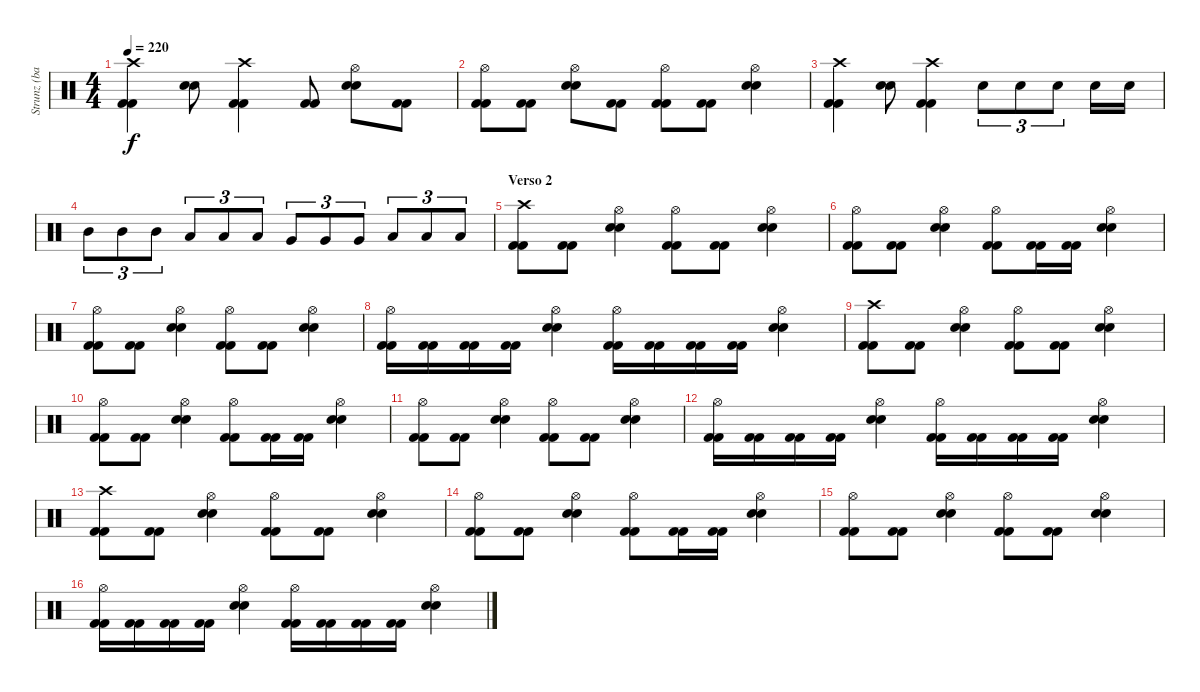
\track ("Strunz (bateria)" "Strunz (ba") {instrument percussion}
\staff {score}
\articulation defaults
\ts (4 4)
\tempo 220
\clef neutral
\ks c
("Crash high (hit)" "Kick (hit) 2" "Kick (hit) 2").4{dy f} ("Snare (hit) 2" "Snare (hit) 2").8 ("Crash high (hit)" "Kick (hit) 2" "Kick (hit) 2").4 ("Kick (hit) 2" "Kick (hit) 2").8 ("Hi-Hat (open)" "Snare (hit) 2" "Snare (hit) 2").8 ("Kick (hit) 2" "Kick (hit) 2").8 |
("Hi-Hat (open)" "Kick (hit) 2" "Kick (hit) 2").8 ("Kick (hit) 2" "Kick (hit) 2").8 ("Hi-Hat (open)" "Snare (hit) 2" "Snare (hit) 2").8 ("Kick (hit) 2" "Kick (hit) 2").8 ("Hi-Hat (open)" "Kick (hit) 2" "Kick (hit) 2").8 ("Kick (hit) 2" "Kick (hit) 2").8 ("Hi-Hat (open)" "Snare (hit) 2" "Snare (hit) 2").4 |
("Crash high (hit)" "Kick (hit) 2" "Kick (hit) 2").4 ("Snare (hit) 2" "Snare (hit) 2").8 ("Crash high (hit)" "Kick (hit) 2" "Kick (hit) 2").4 "Snare (hit) 2".8{tu (3 2)} "Snare (hit) 2".8{tu (3 2)} "Snare (hit) 2".8{tu (3 2)} "Snare (hit) 2".16 "Snare (hit) 2".16 |
"Mid Tom (hit)".8{tu (3 2)} "Mid Tom (hit)".8{tu (3 2)} "Mid Tom (hit)".8{tu (3 2)} "Low Tom (hit)".8{tu (3 2)} "Low Tom (hit)".8{tu (3 2)} "Low Tom (hit)".8{tu (3 2)} "Very Low Tom (hit)".8{tu (3 2)} "Very Low Tom (hit)".8{tu (3 2)} "Very Low Tom (hit)".8{tu (3 2)} "Low Floor Tom (hit)".8{tu (3 2)} "Low Floor Tom (hit)".8{tu (3 2)} "Low Floor Tom (hit)".8{tu (3 2)} |
\section ("" "Verso 2")
("Crash high (hit)" "Kick (hit) 2" "Kick (hit) 2").8 ("Kick (hit) 2" "Kick (hit) 2").8 ("Hi-Hat (open)" "Snare (hit) 2" "Snare (hit) 2").4 ("Hi-Hat (open)" "Kick (hit) 2" "Kick (hit) 2").8 ("Kick (hit) 2" "Kick (hit) 2").8 ("Hi-Hat (open)" "Snare (hit) 2" "Snare (hit) 2").4 |
("Hi-Hat (open)" "Kick (hit) 2" "Kick (hit) 2").8 ("Kick (hit) 2" "Kick (hit) 2").8 ("Hi-Hat (open)" "Snare (hit) 2" "Snare (hit) 2").4 ("Hi-Hat (open)" "Kick (hit) 2" "Kick (hit) 2").8 ("Kick (hit) 2" "Kick (hit) 2").16 ("Kick (hit) 2" "Kick (hit) 2").16 ("Hi-Hat (open)" "Snare (hit) 2" "Snare (hit) 2").4 |
("Hi-Hat (open)" "Kick (hit) 2" "Kick (hit) 2").8 ("Kick (hit) 2" "Kick (hit) 2").8 ("Hi-Hat (open)" "Snare (hit) 2" "Snare (hit) 2").4 ("Hi-Hat (open)" "Kick (hit) 2" "Kick (hit) 2").8 ("Kick (hit) 2" "Kick (hit) 2").8 ("Hi-Hat (open)" "Snare (hit) 2" "Snare (hit) 2").4 |
("Hi-Hat (open)" "Kick (hit) 2" "Kick (hit) 2").16 ("Kick (hit) 2" "Kick (hit) 2").16 ("Kick (hit) 2" "Kick (hit) 2").16 ("Kick (hit) 2" "Kick (hit) 2").16 ("Hi-Hat (open)" "Snare (hit) 2" "Snare (hit) 2").4 ("Hi-Hat (open)" "Kick (hit) 2" "Kick (hit) 2").16 ("Kick (hit) 2" "Kick (hit) 2").16 ("Kick (hit) 2" "Kick (hit) 2").16 ("Kick (hit) 2" "Kick (hit) 2").16 ("Hi-Hat (open)" "Snare (hit) 2" "Snare (hit) 2").4 |
("Crash high (hit)" "Kick (hit) 2" "Kick (hit) 2").8 ("Kick (hit) 2" "Kick (hit) 2").8 ("Hi-Hat (open)" "Snare (hit) 2" "Snare (hit) 2").4 ("Hi-Hat (open)" "Kick (hit) 2" "Kick (hit) 2").8 ("Kick (hit) 2" "Kick (hit) 2").8 ("Hi-Hat (open)" "Snare (hit) 2" "Snare (hit) 2").4 |
("Hi-Hat (open)" "Kick (hit) 2" "Kick (hit) 2").8 ("Kick (hit) 2" "Kick (hit) 2").8 ("Hi-Hat (open)" "Snare (hit) 2" "Snare (hit) 2").4 ("Hi-Hat (open)" "Kick (hit) 2" "Kick (hit) 2").8 ("Kick (hit) 2" "Kick (hit) 2").16 ("Kick (hit) 2" "Kick (hit) 2").16 ("Hi-Hat (open)" "Snare (hit) 2" "Snare (hit) 2").4 |
("Hi-Hat (open)" "Kick (hit) 2" "Kick (hit) 2").8 ("Kick (hit) 2" "Kick (hit) 2").8 ("Hi-Hat (open)" "Snare (hit) 2" "Snare (hit) 2").4 ("Hi-Hat (open)" "Kick (hit) 2" "Kick (hit) 2").8 ("Kick (hit) 2" "Kick (hit) 2").8 ("Hi-Hat (open)" "Snare (hit) 2" "Snare (hit) 2").4 |
("Hi-Hat (open)" "Kick (hit) 2" "Kick (hit) 2").16 ("Kick (hit) 2" "Kick (hit) 2").16 ("Kick (hit) 2" "Kick (hit) 2").16 ("Kick (hit) 2" "Kick (hit) 2").16 ("Hi-Hat (open)" "Snare (hit) 2" "Snare (hit) 2").4 ("Hi-Hat (open)" "Kick (hit) 2" "Kick (hit) 2").16 ("Kick (hit) 2" "Kick (hit) 2").16 ("Kick (hit) 2" "Kick (hit) 2").16 ("Kick (hit) 2" "Kick (hit) 2").16 ("Hi-Hat (open)" "Snare (hit) 2" "Snare (hit) 2").4 |
("Crash high (hit)" "Kick (hit) 2" "Kick (hit) 2").8 ("Kick (hit) 2" "Kick (hit) 2").8 ("Hi-Hat (open)" "Snare (hit) 2" "Snare (hit) 2").4 ("Hi-Hat (open)" "Kick (hit) 2" "Kick (hit) 2").8 ("Kick (hit) 2" "Kick (hit) 2").8 ("Hi-Hat (open)" "Snare (hit) 2" "Snare (hit) 2").4 |
("Hi-Hat (open)" "Kick (hit) 2" "Kick (hit) 2").8 ("Kick (hit) 2" "Kick (hit) 2").8 ("Hi-Hat (open)" "Snare (hit) 2" "Snare (hit) 2").4 ("Hi-Hat (open)" "Kick (hit) 2" "Kick (hit) 2").8 ("Kick (hit) 2" "Kick (hit) 2").16 ("Kick (hit) 2" "Kick (hit) 2").16 ("Hi-Hat (open)" "Snare (hit) 2" "Snare (hit) 2").4 |
("Hi-Hat (open)" "Kick (hit) 2" "Kick (hit) 2").8 ("Kick (hit) 2" "Kick (hit) 2").8 ("Hi-Hat (open)" "Snare (hit) 2" "Snare (hit) 2").4 ("Hi-Hat (open)" "Kick (hit) 2" "Kick (hit) 2").8 ("Kick (hit) 2" "Kick (hit) 2").8 ("Hi-Hat (open)" "Snare (hit) 2" "Snare (hit) 2").4 |
("Hi-Hat (open)" "Kick (hit) 2" "Kick (hit) 2").16 ("Kick (hit) 2" "Kick (hit) 2").16 ("Kick (hit) 2" "Kick (hit) 2").16 ("Kick (hit) 2" "Kick (hit) 2").16 ("Hi-Hat (open)" "Snare (hit) 2" "Snare (hit) 2").4 ("Hi-Hat (open)" "Kick (hit) 2" "Kick (hit) 2").16 ("Kick (hit) 2" "Kick (hit) 2").16 ("Kick (hit) 2" "Kick (hit) 2").16 ("Kick (hit) 2" "Kick (hit) 2").16 ("Hi-Hat (open)" "Snare (hit) 2" "Snare (hit) 2").4
